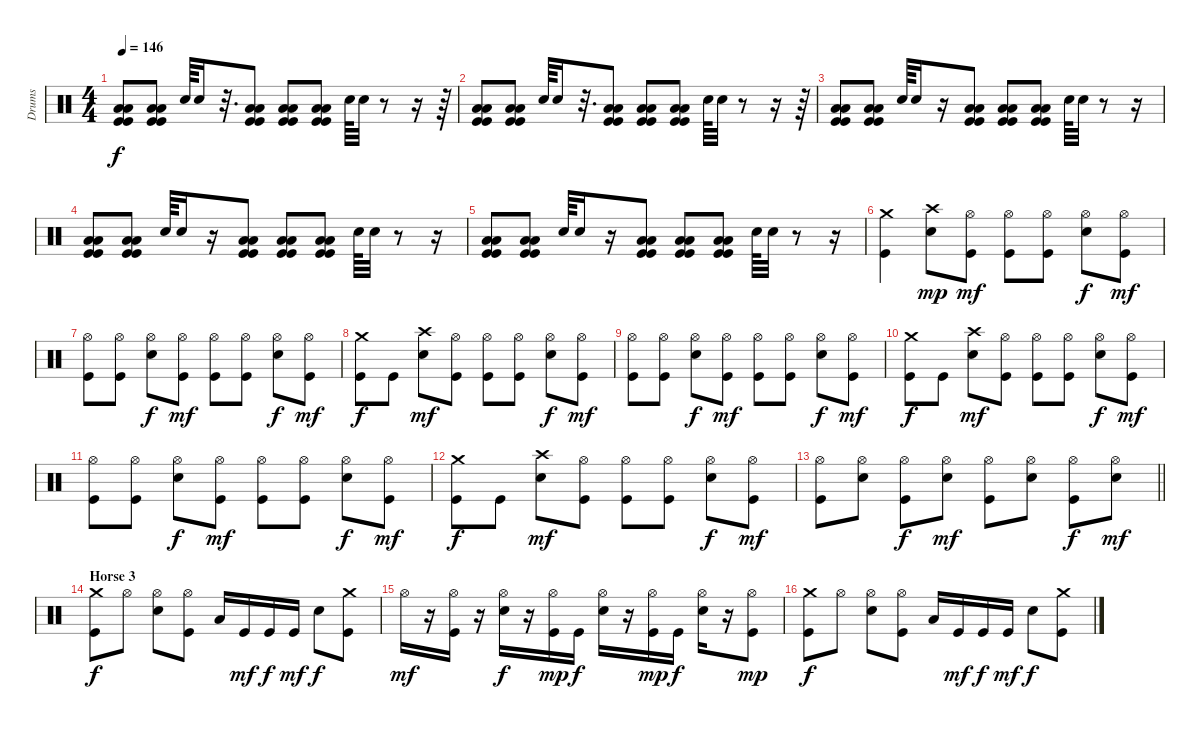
\track ("Drums" "Drums") {instrument percussion}
\staff {score}
\articulation defaults
\ts (4 4)
\tempo 146
\clef neutral
\ks c
("Low Tom (hit)" "Low Floor Tom (hit)" "Kick (hit)" "Kick (hit)").8{dy f} ("Low Tom (hit)" "Low Floor Tom (hit)" "Kick (hit)" "Kick (hit)").8 "Snare (hit) 2".64 "Snare (hit) 2".16 r.32{d} ("Low Tom (hit)" "Low Floor Tom (hit)" "Kick (hit)" "Kick (hit)").8 ("Low Tom (hit)" "Low Floor Tom (hit)" "Kick (hit)" "Kick (hit)").8 ("Low Tom (hit)" "Low Floor Tom (hit)" "Kick (hit)" "Kick (hit)").8 "Snare (hit) 2".64 "Snare (hit) 2".32 r.8 r.16 r.64 |
("Low Tom (hit)" "Low Floor Tom (hit)" "Kick (hit)" "Kick (hit)").8 ("Low Tom (hit)" "Low Floor Tom (hit)" "Kick (hit)" "Kick (hit)").8 "Snare (hit) 2".64 "Snare (hit) 2".16 r.32{d} ("Low Tom (hit)" "Low Floor Tom (hit)" "Kick (hit)" "Kick (hit)").8 ("Low Tom (hit)" "Low Floor Tom (hit)" "Kick (hit)" "Kick (hit)").8 ("Low Tom (hit)" "Low Floor Tom (hit)" "Kick (hit)" "Kick (hit)").8 "Snare (hit) 2".64 "Snare (hit) 2".32 r.8 r.16 r.64 |
("Low Tom (hit)" "Low Floor Tom (hit)" "Kick (hit)" "Kick (hit)").8 ("Low Tom (hit)" "Low Floor Tom (hit)" "Kick (hit)" "Kick (hit)").8 "Snare (hit) 2".64 "Snare (hit) 2".16 r.16 ("Low Tom (hit)" "Low Floor Tom (hit)" "Kick (hit)" "Kick (hit)").8 ("Low Tom (hit)" "Low Floor Tom (hit)" "Kick (hit)" "Kick (hit)").8 ("Low Tom (hit)" "Low Floor Tom (hit)" "Kick (hit)" "Kick (hit)").8 "Snare (hit) 2".64 "Snare (hit) 2".32 r.8 r.16 |
("Low Tom (hit)" "Low Floor Tom (hit)" "Kick (hit)" "Kick (hit)").8 ("Low Tom (hit)" "Low Floor Tom (hit)" "Kick (hit)" "Kick (hit)").8 "Snare (hit) 2".64 "Snare (hit) 2".16 r.16 ("Low Tom (hit)" "Low Floor Tom (hit)" "Kick (hit)" "Kick (hit)").8 ("Low Tom (hit)" "Low Floor Tom (hit)" "Kick (hit)" "Kick (hit)").8 ("Low Tom (hit)" "Low Floor Tom (hit)" "Kick (hit)" "Kick (hit)").8 "Snare (hit) 2".64 "Snare (hit) 2".32 r.8 r.16 |
("Low Tom (hit)" "Low Floor Tom (hit)" "Kick (hit)" "Kick (hit)").8 ("Low Tom (hit)" "Low Floor Tom (hit)" "Kick (hit)" "Kick (hit)").8 "Snare (hit) 2".64 "Snare (hit) 2".16 r.16 ("Low Tom (hit)" "Low Floor Tom (hit)" "Kick (hit)" "Kick (hit)").8 ("Low Tom (hit)" "Low Floor Tom (hit)" "Kick (hit)" "Kick (hit)").8 ("Low Tom (hit)" "Low Floor Tom (hit)" "Kick (hit)" "Kick (hit)").8 "Snare (hit) 2".64 "Snare (hit) 2".32 r.8 r.16 |
("Crash medium (hit)" "Kick (hit)").4 ("Crash high (hit)" "Snare (hit) 2").8{dy mp} ("Hi-Hat (open)" "Kick (hit)").8{dy mf} ("Hi-Hat (open)" "Kick (hit)").8 ("Hi-Hat (open)" "Kick (hit)").8 ("Hi-Hat (open)" "Snare (hit) 2").8{dy f} ("Hi-Hat (open)" "Kick (hit)").8{dy mf} |
("Hi-Hat (open)" "Kick (hit)").8 ("Hi-Hat (open)" "Kick (hit)").8 ("Hi-Hat (open)" "Snare (hit) 2").8{dy f} ("Hi-Hat (open)" "Kick (hit)").8{dy mf} ("Hi-Hat (open)" "Kick (hit)").8 ("Hi-Hat (open)" "Kick (hit)").8 ("Hi-Hat (open)" "Snare (hit) 2").8{dy f} ("Hi-Hat (open)" "Kick (hit)").8{dy mf} |
("Crash medium (hit)" "Kick (hit)").8{dy f} "Kick (hit)".8 ("Crash high (hit)" "Snare (hit) 2").8{dy mf} ("Hi-Hat (open)" "Kick (hit)").8 ("Hi-Hat (open)" "Kick (hit)").8 ("Hi-Hat (open)" "Kick (hit)").8 ("Hi-Hat (open)" "Snare (hit) 2").8{dy f} ("Hi-Hat (open)" "Kick (hit)").8{dy mf} |
("Hi-Hat (open)" "Kick (hit)").8 ("Hi-Hat (open)" "Kick (hit)").8 ("Hi-Hat (open)" "Snare (hit) 2").8{dy f} ("Hi-Hat (open)" "Kick (hit)").8{dy mf} ("Hi-Hat (open)" "Kick (hit)").8 ("Hi-Hat (open)" "Kick (hit)").8 ("Hi-Hat (open)" "Snare (hit) 2").8{dy f} ("Hi-Hat (open)" "Kick (hit)").8{dy mf} |
("Crash medium (hit)" "Kick (hit)").8{dy f} "Kick (hit)".8 ("Crash high (hit)" "Snare (hit) 2").8{dy mf} ("Hi-Hat (open)" "Kick (hit)").8 ("Hi-Hat (open)" "Kick (hit)").8 ("Hi-Hat (open)" "Kick (hit)").8 ("Hi-Hat (open)" "Snare (hit) 2").8{dy f} ("Hi-Hat (open)" "Kick (hit)").8{dy mf} |
("Hi-Hat (open)" "Kick (hit)").8 ("Hi-Hat (open)" "Kick (hit)").8 ("Hi-Hat (open)" "Snare (hit) 2").8{dy f} ("Hi-Hat (open)" "Kick (hit)").8{dy mf} ("Hi-Hat (open)" "Kick (hit)").8 ("Hi-Hat (open)" "Kick (hit)").8 ("Hi-Hat (open)" "Snare (hit) 2").8{dy f} ("Hi-Hat (open)" "Kick (hit)").8{dy mf} |
("Crash medium (hit)" "Kick (hit)").8{dy f} "Kick (hit)".8 ("Crash high (hit)" "Snare (hit) 2").8{dy mf} ("Hi-Hat (open)" "Kick (hit)").8 ("Hi-Hat (open)" "Kick (hit)").8 ("Hi-Hat (open)" "Kick (hit)").8 ("Hi-Hat (open)" "Snare (hit) 2").8{dy f} ("Hi-Hat (open)" "Kick (hit)").8{dy mf} |
\barLineRight lightlight
("Hi-Hat (open)" "Kick (hit)").8 ("Hi-Hat (open)" "Snare (hit) 2").8 ("Hi-Hat (open)" "Kick (hit)").8{dy f} ("Hi-Hat (open)" "Snare (hit) 2").8{dy mf} ("Hi-Hat (open)" "Kick (hit)").8 ("Hi-Hat (open)" "Snare (hit) 2").8 ("Hi-Hat (open)" "Kick (hit)").8{dy f} ("Hi-Hat (open)" "Snare (hit) 2").8{dy mf} |
\section ("" "Horse 3")
("Crash medium (hit)" "Kick (hit)").8{dy f} "Hi-Hat (open)".8 ("Hi-Hat (open)" "Snare (hit) 2").8 ("Hi-Hat (open)" "Kick (hit)").8 "Low Floor Tom (hit)".16 "Kick (hit)".16{dy mf} "Kick (hit)".16{dy f} "Kick (hit)".16{dy mf} "Snare (hit) 2".8{dy f} ("Crash medium (hit)" "Kick (hit)").8 |
"Hi-Hat (open)".16{dy mf} r.16 ("Hi-Hat (open)" "Kick (hit)").16 r.16 ("Hi-Hat (open)" "Snare (hit) 2").16{dy f} r.16 ("Hi-Hat (open)" "Kick (hit)").16{dy mp} "Kick (hit)".16{dy f} ("Hi-Hat (open)" "Snare (hit) 2").16 r.16 ("Hi-Hat (open)" "Kick (hit)").16{dy mp} "Kick (hit)".16{dy f} ("Hi-Hat (open)" "Snare (hit) 2").16 r.16 ("Hi-Hat (open)" "Kick (hit)").8{dy mp} |
("Crash medium (hit)" "Kick (hit)").8{dy f} "Hi-Hat (open)".8 ("Hi-Hat (open)" "Snare (hit) 2").8 ("Hi-Hat (open)" "Kick (hit)").8 "Low Floor Tom (hit)".16 "Kick (hit)".16{dy mf} "Kick (hit)".16{dy f} "Kick (hit)".16{dy mf} "Snare (hit) 2".8{dy f} ("Crash medium (hit)" "Kick (hit)").8
